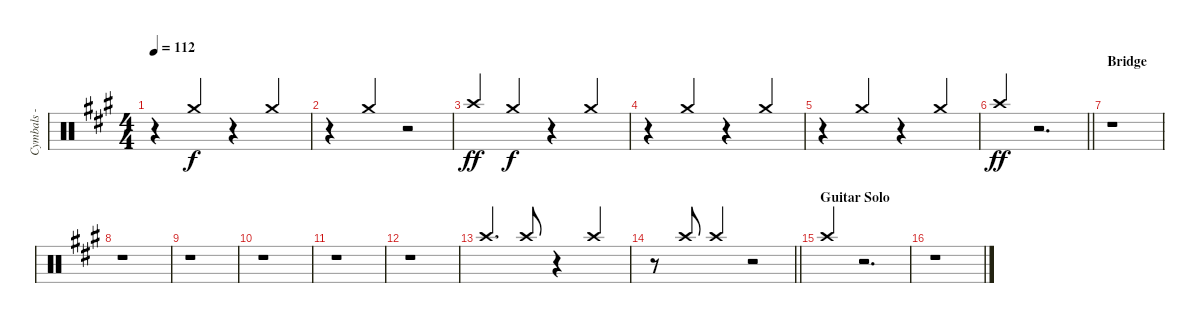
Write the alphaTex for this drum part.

\track ("Cymbals - crash" "Cymbals - ") {instrument percussion}
\staff {score}
\articulation defaults
\ts (4 4)
\tempo 112
\clef neutral
\ks f#minor
r.4{dy f beam Up} "Crash medium (hit)".4{beam Up} r.4 "Crash medium (hit)".4{beam Up} |
r.4{beam Up} "Crash medium (hit)".4{beam Up} r.2 |
"Crash high (hit)".4{dy ff volume 4 balance 8 beam Up} "Crash medium (hit)".4{dy f volume 3 balance 4 beam Up} r.4 "Crash medium (hit)".4{beam Up} |
r.4{beam Up} "Crash medium (hit)".4{beam Up} r.4 "Crash medium (hit)".4{beam Up} |
r.4{beam Up} "Crash medium (hit)".4{beam Up} r.4 "Crash medium (hit)".4{beam Up} |
\barLineRight lightlight "Crash high (hit)".4{dy ff volume 5 balance 8 beam Up}
r.2{d} |
\section ("" "Bridge")
r.1 |
r.1 |
r.1 |
r.1 |
r.1 |
r.1 |
"Crash high (hit)".4{d beam Up} "Crash high (hit)".8{beam Up} r.4 "Crash high (hit)".4{beam Up} |
\barLineRight lightlight
r.8 "Crash high (hit)".8{beam Up} "Crash high (hit)".4{beam Up} r.2 |
\section ("" "Guitar Solo")
"Crash high (hit)".4{beam Up} r.2{d} |
r.1
